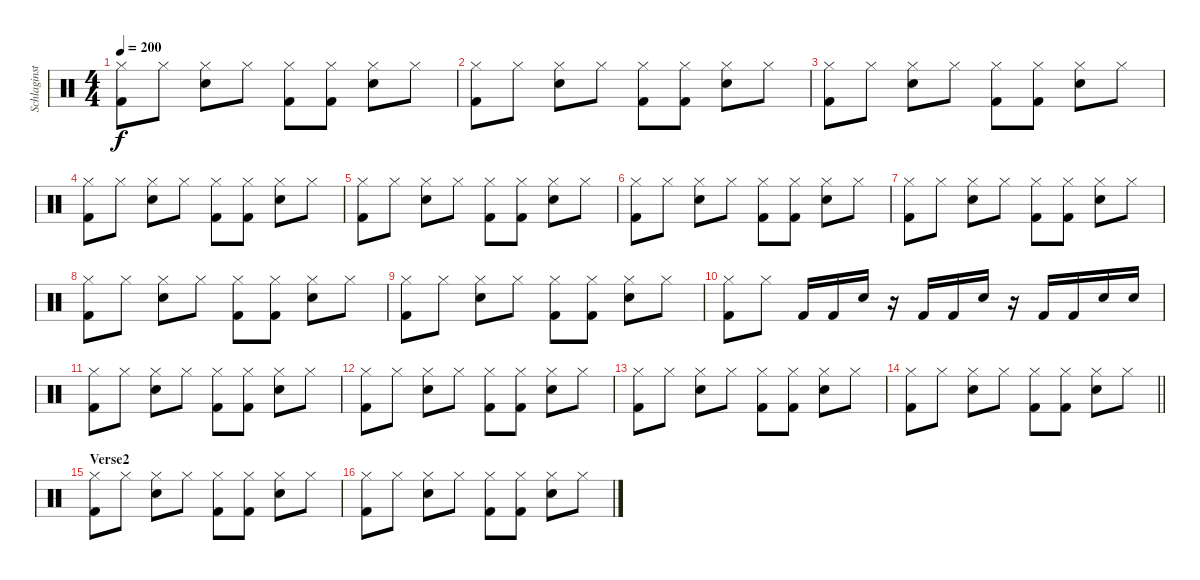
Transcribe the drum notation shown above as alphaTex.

\track ("Schlaginstrumente - Auswahl" "Schlaginst") {instrument percussion}
\staff {score}
\articulation defaults
\ts (4 4)
\tempo 200
\clef neutral
\ks c
("Hi-Hat (closed)" "Kick (hit) 2").8{dy f} "Hi-Hat (closed)".8 ("Hi-Hat (closed)" "Electric Snare (hit)").8 "Hi-Hat (closed)".8 ("Hi-Hat (closed)" "Kick (hit) 2").8 ("Hi-Hat (closed)" "Kick (hit) 2").8 ("Hi-Hat (closed)" "Electric Snare (hit)").8 "Hi-Hat (closed)".8 |
("Hi-Hat (closed)" "Kick (hit) 2").8 "Hi-Hat (closed)".8 ("Hi-Hat (closed)" "Electric Snare (hit)").8 "Hi-Hat (closed)".8 ("Hi-Hat (closed)" "Kick (hit) 2").8 ("Hi-Hat (closed)" "Kick (hit) 2").8 ("Hi-Hat (closed)" "Electric Snare (hit)").8 "Hi-Hat (closed)".8 |
("Hi-Hat (closed)" "Kick (hit) 2").8 "Hi-Hat (closed)".8 ("Hi-Hat (closed)" "Electric Snare (hit)").8 "Hi-Hat (closed)".8 ("Hi-Hat (closed)" "Kick (hit) 2").8 ("Hi-Hat (closed)" "Kick (hit) 2").8 ("Hi-Hat (closed)" "Electric Snare (hit)").8 "Hi-Hat (closed)".8 |
("Hi-Hat (closed)" "Kick (hit) 2").8 "Hi-Hat (closed)".8 ("Hi-Hat (closed)" "Electric Snare (hit)").8 "Hi-Hat (closed)".8 ("Hi-Hat (closed)" "Kick (hit) 2").8 ("Hi-Hat (closed)" "Kick (hit) 2").8 ("Hi-Hat (closed)" "Electric Snare (hit)").8 "Hi-Hat (closed)".8 |
("Hi-Hat (closed)" "Kick (hit) 2").8 "Hi-Hat (closed)".8 ("Hi-Hat (closed)" "Electric Snare (hit)").8 "Hi-Hat (closed)".8 ("Hi-Hat (closed)" "Kick (hit) 2").8 ("Hi-Hat (closed)" "Kick (hit) 2").8 ("Hi-Hat (closed)" "Electric Snare (hit)").8 "Hi-Hat (closed)".8 |
("Hi-Hat (closed)" "Kick (hit) 2").8 "Hi-Hat (closed)".8 ("Hi-Hat (closed)" "Electric Snare (hit)").8 "Hi-Hat (closed)".8 ("Hi-Hat (closed)" "Kick (hit) 2").8 ("Hi-Hat (closed)" "Kick (hit) 2").8 ("Hi-Hat (closed)" "Electric Snare (hit)").8 "Hi-Hat (closed)".8 |
("Hi-Hat (closed)" "Kick (hit) 2").8 "Hi-Hat (closed)".8 ("Hi-Hat (closed)" "Electric Snare (hit)").8 "Hi-Hat (closed)".8 ("Hi-Hat (closed)" "Kick (hit) 2").8 ("Hi-Hat (closed)" "Kick (hit) 2").8 ("Hi-Hat (closed)" "Electric Snare (hit)").8 "Hi-Hat (closed)".8 |
("Hi-Hat (closed)" "Kick (hit) 2").8 "Hi-Hat (closed)".8 ("Hi-Hat (closed)" "Electric Snare (hit)").8 "Hi-Hat (closed)".8 ("Hi-Hat (closed)" "Kick (hit) 2").8 ("Hi-Hat (closed)" "Kick (hit) 2").8 ("Hi-Hat (closed)" "Electric Snare (hit)").8 "Hi-Hat (closed)".8 |
("Hi-Hat (closed)" "Kick (hit) 2").8 "Hi-Hat (closed)".8 ("Hi-Hat (closed)" "Electric Snare (hit)").8 "Hi-Hat (closed)".8 ("Hi-Hat (closed)" "Kick (hit) 2").8 ("Hi-Hat (closed)" "Kick (hit) 2").8 ("Hi-Hat (closed)" "Electric Snare (hit)").8 "Hi-Hat (closed)".8 |
("Hi-Hat (closed)" "Kick (hit) 2").8 "Hi-Hat (closed)".8 "Kick (hit) 2".16 "Kick (hit) 2".16 "Electric Snare (hit)".16 r.16 "Kick (hit) 2".16 "Kick (hit) 2".16 "Electric Snare (hit)".16 r.16 "Kick (hit) 2".16 "Kick (hit) 2".16 "Electric Snare (hit)".16 "Electric Snare (hit)".16 |
("Hi-Hat (closed)" "Kick (hit) 2").8 "Hi-Hat (closed)".8 ("Hi-Hat (closed)" "Electric Snare (hit)").8 "Hi-Hat (closed)".8 ("Hi-Hat (closed)" "Kick (hit) 2").8 ("Hi-Hat (closed)" "Kick (hit) 2").8 ("Hi-Hat (closed)" "Electric Snare (hit)").8 "Hi-Hat (closed)".8 |
("Hi-Hat (closed)" "Kick (hit) 2").8 "Hi-Hat (closed)".8 ("Hi-Hat (closed)" "Electric Snare (hit)").8 "Hi-Hat (closed)".8 ("Hi-Hat (closed)" "Kick (hit) 2").8 ("Hi-Hat (closed)" "Kick (hit) 2").8 ("Hi-Hat (closed)" "Electric Snare (hit)").8 "Hi-Hat (closed)".8 |
("Hi-Hat (closed)" "Kick (hit) 2").8 "Hi-Hat (closed)".8 ("Hi-Hat (closed)" "Electric Snare (hit)").8 "Hi-Hat (closed)".8 ("Hi-Hat (closed)" "Kick (hit) 2").8 ("Hi-Hat (closed)" "Kick (hit) 2").8 ("Hi-Hat (closed)" "Electric Snare (hit)").8 "Hi-Hat (closed)".8 |
\barLineRight lightlight
("Hi-Hat (closed)" "Kick (hit) 2").8 "Hi-Hat (closed)".8 ("Hi-Hat (closed)" "Electric Snare (hit)").8 "Hi-Hat (closed)".8 ("Hi-Hat (closed)" "Kick (hit) 2").8 ("Hi-Hat (closed)" "Kick (hit) 2").8 ("Hi-Hat (closed)" "Electric Snare (hit)").8 "Hi-Hat (closed)".8 |
\section ("" "Verse2")
("Hi-Hat (closed)" "Kick (hit) 2").8 "Hi-Hat (closed)".8 ("Hi-Hat (closed)" "Electric Snare (hit)").8 "Hi-Hat (closed)".8 ("Hi-Hat (closed)" "Kick (hit) 2").8 ("Hi-Hat (closed)" "Kick (hit) 2").8 ("Hi-Hat (closed)" "Electric Snare (hit)").8 "Hi-Hat (closed)".8 |
("Hi-Hat (closed)" "Kick (hit) 2").8 "Hi-Hat (closed)".8 ("Hi-Hat (closed)" "Electric Snare (hit)").8 "Hi-Hat (closed)".8 ("Hi-Hat (closed)" "Kick (hit) 2").8 ("Hi-Hat (closed)" "Kick (hit) 2").8 ("Hi-Hat (closed)" "Electric Snare (hit)").8 "Hi-Hat (closed)".8
